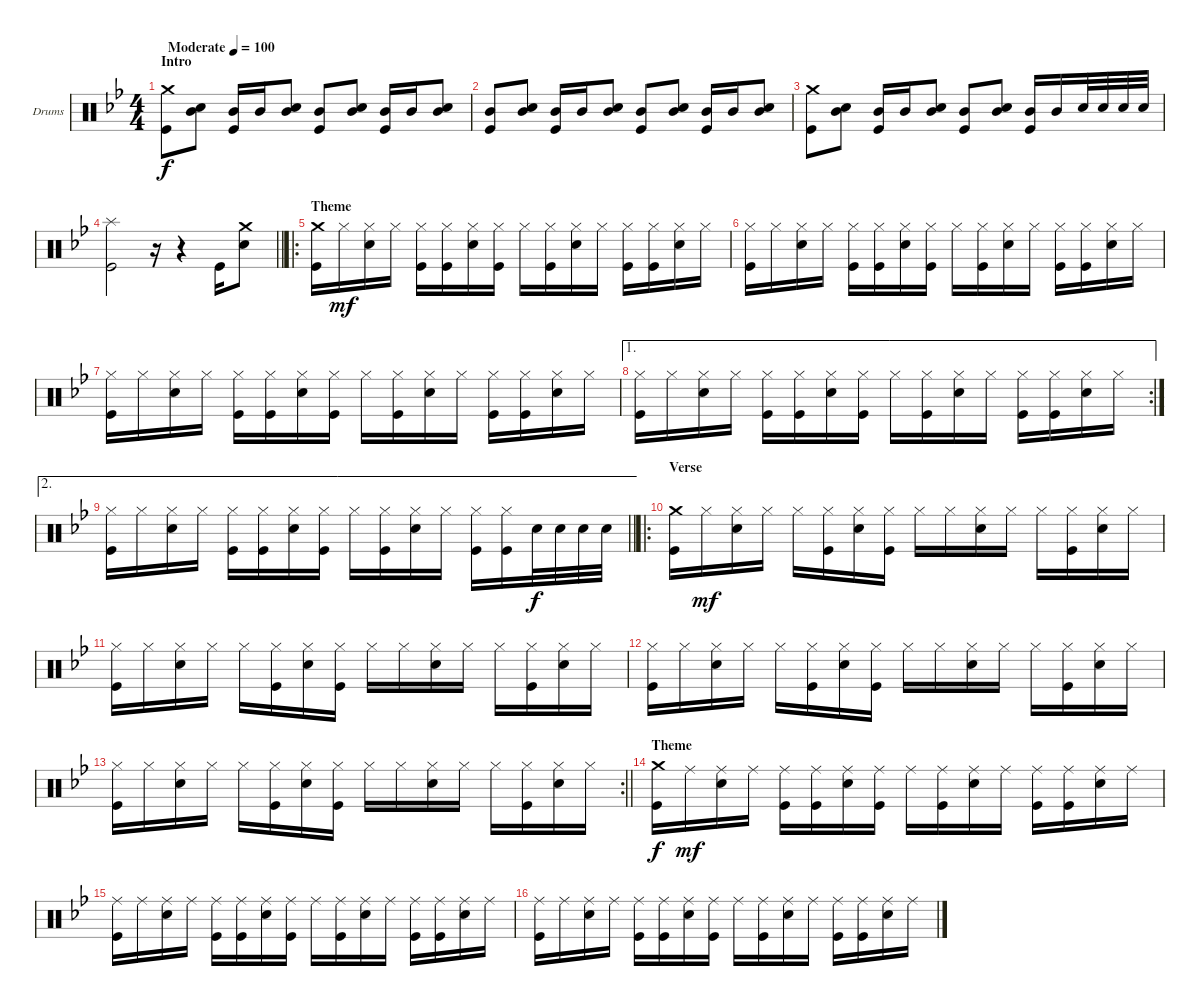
\bracketExtendMode groupsimilarinstruments
\firstSystemTrackNameOrientation horizontal
\otherSystemsTrackNameOrientation horizontal
\track ("Drumkit" "Drums") {instrument percussion}
\staff {score}
\articulation defaults
\ts (4 4)
\beaming (8 2 2 2 2)
\section ("" "Intro")
\tempo (100 "Moderate")
\clef neutral
\ks gminor
("Crash medium (hit)" "Kick (hit)").8{dy f} ("Mid Tom (hit)" "Snare (hit) 2").8 ("Mid Tom (hit)" "Kick (hit)").16 "Mid Tom (hit)".16 ("Mid Tom (hit)" "Snare (hit) 2").8 ("Mid Tom (hit)" "Kick (hit)").8 ("Mid Tom (hit)" "Snare (hit) 2").8 ("Mid Tom (hit)" "Kick (hit)").16 "Mid Tom (hit)".16 ("Mid Tom (hit)" "Snare (hit) 2").8 |
("Mid Tom (hit)" "Kick (hit)").8 ("Mid Tom (hit)" "Snare (hit) 2").8 ("Mid Tom (hit)" "Kick (hit)").16 "Mid Tom (hit)".16 ("Mid Tom (hit)" "Snare (hit) 2").8 ("Mid Tom (hit)" "Kick (hit)").8 ("Mid Tom (hit)" "Snare (hit) 2").8 ("Mid Tom (hit)" "Kick (hit)").16 "Mid Tom (hit)".16 ("Mid Tom (hit)" "Snare (hit) 2").8 |
("Crash medium (hit)" "Kick (hit)").8 ("Mid Tom (hit)" "Snare (hit) 2").8 ("Mid Tom (hit)" "Kick (hit)").16 "Mid Tom (hit)".16 ("Mid Tom (hit)" "Snare (hit) 2").8 ("Mid Tom (hit)" "Kick (hit)").8 ("Mid Tom (hit)" "Snare (hit) 2").8 ("Mid Tom (hit)" "Kick (hit)").16 "Mid Tom (hit)".16 "Snare (hit) 2".32 "Snare (hit) 2".32 "Snare (hit) 2".32 "Snare (hit) 2".32 |
\barLineRight lightlight
("Splash (hit)" "Kick (hit)").2 r.16 r.4 "Kick (hit)".16 ("Crash medium (hit)" "Snare (hit) 2").8 |
\ro
\section ("" "Theme")
("Crash medium (hit)" "Kick (hit)").16 "Hi-Hat (closed)".16{dy mf} ("Hi-Hat (closed)" "Snare (hit) 2").16 "Hi-Hat (closed)".16 ("Hi-Hat (closed)" "Kick (hit)").16 ("Hi-Hat (closed)" "Kick (hit)").16 ("Hi-Hat (closed)" "Snare (hit) 2").16 ("Hi-Hat (closed)" "Kick (hit)").16 "Hi-Hat (closed)".16 ("Hi-Hat (closed)" "Kick (hit)").16 ("Hi-Hat (closed)" "Snare (hit) 2").16 "Hi-Hat (closed)".16 ("Hi-Hat (closed)" "Kick (hit)").16 ("Hi-Hat (closed)" "Kick (hit)").16 ("Hi-Hat (closed)" "Snare (hit) 2").16 "Hi-Hat (closed)".16 |
("Hi-Hat (closed)" "Kick (hit)").16 "Hi-Hat (closed)".16 ("Hi-Hat (closed)" "Snare (hit) 2").16 "Hi-Hat (closed)".16 ("Hi-Hat (closed)" "Kick (hit)").16 ("Hi-Hat (closed)" "Kick (hit)").16 ("Hi-Hat (closed)" "Snare (hit) 2").16 ("Hi-Hat (closed)" "Kick (hit)").16 "Hi-Hat (closed)".16 ("Hi-Hat (closed)" "Kick (hit)").16 ("Hi-Hat (closed)" "Snare (hit) 2").16 "Hi-Hat (closed)".16 ("Hi-Hat (closed)" "Kick (hit)").16 ("Hi-Hat (closed)" "Kick (hit)").16 ("Hi-Hat (closed)" "Snare (hit) 2").16 "Hi-Hat (closed)".16 |
("Hi-Hat (closed)" "Kick (hit)").16 "Hi-Hat (closed)".16 ("Hi-Hat (closed)" "Snare (hit) 2").16 "Hi-Hat (closed)".16 ("Hi-Hat (closed)" "Kick (hit)").16 ("Hi-Hat (closed)" "Kick (hit)").16 ("Hi-Hat (closed)" "Snare (hit) 2").16 ("Hi-Hat (closed)" "Kick (hit)").16 "Hi-Hat (closed)".16 ("Hi-Hat (closed)" "Kick (hit)").16 ("Hi-Hat (closed)" "Snare (hit) 2").16 "Hi-Hat (closed)".16 ("Hi-Hat (closed)" "Kick (hit)").16 ("Hi-Hat (closed)" "Kick (hit)").16 ("Hi-Hat (closed)" "Snare (hit) 2").16 "Hi-Hat (closed)".16 |
\ae 1
\rc 2
("Hi-Hat (closed)" "Kick (hit)").16 "Hi-Hat (closed)".16 ("Hi-Hat (closed)" "Snare (hit) 2").16 "Hi-Hat (closed)".16 ("Hi-Hat (closed)" "Kick (hit)").16 ("Hi-Hat (closed)" "Kick (hit)").16 ("Hi-Hat (closed)" "Snare (hit) 2").16 ("Hi-Hat (closed)" "Kick (hit)").16 "Hi-Hat (closed)".16 ("Hi-Hat (closed)" "Kick (hit)").16 ("Hi-Hat (closed)" "Snare (hit) 2").16 "Hi-Hat (closed)".16 ("Hi-Hat (closed)" "Kick (hit)").16 ("Hi-Hat (closed)" "Kick (hit)").16 ("Hi-Hat (closed)" "Snare (hit) 2").16 "Hi-Hat (closed)".16 |
\ae 2
\barLineRight lightlight
("Hi-Hat (closed)" "Kick (hit)").16 "Hi-Hat (closed)".16 ("Hi-Hat (closed)" "Snare (hit) 2").16 "Hi-Hat (closed)".16 ("Hi-Hat (closed)" "Kick (hit)").16 ("Hi-Hat (closed)" "Kick (hit)").16 ("Hi-Hat (closed)" "Snare (hit) 2").16 ("Hi-Hat (closed)" "Kick (hit)").16 "Hi-Hat (closed)".16 ("Hi-Hat (closed)" "Kick (hit)").16 ("Hi-Hat (closed)" "Snare (hit) 2").16 "Hi-Hat (closed)".16 ("Hi-Hat (closed)" "Kick (hit)").16 ("Hi-Hat (closed)" "Kick (hit)").16 "Snare (hit) 2".32{dy f} "Snare (hit) 2".32 "Snare (hit) 2".32 "Snare (hit) 2".32 |
\ro
\section ("" "Verse")
("Crash medium (hit)" "Kick (hit)").16 "Hi-Hat (closed)".16{dy mf} ("Hi-Hat (closed)" "Snare (hit) 2").16 "Hi-Hat (closed)".16 "Hi-Hat (closed)".16 ("Hi-Hat (closed)" "Kick (hit)").16 ("Hi-Hat (closed)" "Snare (hit) 2").16 ("Hi-Hat (closed)" "Kick (hit)").16 "Hi-Hat (closed)".16 "Hi-Hat (closed)".16 ("Hi-Hat (closed)" "Snare (hit) 2").16 "Hi-Hat (closed)".16 "Hi-Hat (closed)".16 ("Hi-Hat (closed)" "Kick (hit)").16 ("Hi-Hat (closed)" "Snare (hit) 2").16 "Hi-Hat (closed)".16 |
("Hi-Hat (closed)" "Kick (hit)").16 "Hi-Hat (closed)".16 ("Hi-Hat (closed)" "Snare (hit) 2").16 "Hi-Hat (closed)".16 "Hi-Hat (closed)".16 ("Hi-Hat (closed)" "Kick (hit)").16 ("Hi-Hat (closed)" "Snare (hit) 2").16 ("Hi-Hat (closed)" "Kick (hit)").16 "Hi-Hat (closed)".16 "Hi-Hat (closed)".16 ("Hi-Hat (closed)" "Snare (hit) 2").16 "Hi-Hat (closed)".16 "Hi-Hat (closed)".16 ("Hi-Hat (closed)" "Kick (hit)").16 ("Hi-Hat (closed)" "Snare (hit) 2").16 "Hi-Hat (closed)".16 |
("Hi-Hat (closed)" "Kick (hit)").16 "Hi-Hat (closed)".16 ("Hi-Hat (closed)" "Snare (hit) 2").16 "Hi-Hat (closed)".16 "Hi-Hat (closed)".16 ("Hi-Hat (closed)" "Kick (hit)").16 ("Hi-Hat (closed)" "Snare (hit) 2").16 ("Hi-Hat (closed)" "Kick (hit)").16 "Hi-Hat (closed)".16 "Hi-Hat (closed)".16 ("Hi-Hat (closed)" "Snare (hit) 2").16 "Hi-Hat (closed)".16 "Hi-Hat (closed)".16 ("Hi-Hat (closed)" "Kick (hit)").16 ("Hi-Hat (closed)" "Snare (hit) 2").16 "Hi-Hat (closed)".16 |
\rc 2
\barLineRight lightlight
("Hi-Hat (closed)" "Kick (hit)").16 "Hi-Hat (closed)".16 ("Hi-Hat (closed)" "Snare (hit) 2").16 "Hi-Hat (closed)".16 "Hi-Hat (closed)".16 ("Hi-Hat (closed)" "Kick (hit)").16 ("Hi-Hat (closed)" "Snare (hit) 2").16 ("Hi-Hat (closed)" "Kick (hit)").16 "Hi-Hat (closed)".16 "Hi-Hat (closed)".16 ("Hi-Hat (closed)" "Snare (hit) 2").16 "Hi-Hat (closed)".16 "Hi-Hat (closed)".16 ("Hi-Hat (closed)" "Kick (hit)").16 ("Hi-Hat (closed)" "Snare (hit) 2").16 "Hi-Hat (closed)".16 |
\section ("" "Theme")
("Crash medium (hit)" "Kick (hit)").16{dy f} "Ride (middle)".16{dy mf} ("Ride (middle)" "Snare (hit) 2").16 "Ride (middle)".16 ("Ride (middle)" "Kick (hit)").16 ("Ride (middle)" "Kick (hit)").16 ("Ride (middle)" "Snare (hit) 2").16 ("Ride (middle)" "Kick (hit)").16 "Ride (middle)".16 ("Ride (middle)" "Kick (hit)").16 ("Ride (middle)" "Snare (hit) 2").16 "Ride (middle)".16 ("Ride (middle)" "Kick (hit)").16 ("Ride (middle)" "Kick (hit)").16 ("Ride (middle)" "Snare (hit) 2").16 "Ride (middle)".16 |
("Ride (middle)" "Kick (hit)").16 "Ride (middle)".16 ("Ride (middle)" "Snare (hit) 2").16 "Ride (middle)".16 ("Ride (middle)" "Kick (hit)").16 ("Ride (middle)" "Kick (hit)").16 ("Ride (middle)" "Snare (hit) 2").16 ("Ride (middle)" "Kick (hit)").16 "Ride (middle)".16 ("Ride (middle)" "Kick (hit)").16 ("Ride (middle)" "Snare (hit) 2").16 "Ride (middle)".16 ("Ride (middle)" "Kick (hit)").16 ("Ride (middle)" "Kick (hit)").16 ("Ride (middle)" "Snare (hit) 2").16 "Ride (middle)".16 |
("Ride (middle)" "Kick (hit)").16 "Ride (middle)".16 ("Ride (middle)" "Snare (hit) 2").16 "Ride (middle)".16 ("Ride (middle)" "Kick (hit)").16 ("Ride (middle)" "Kick (hit)").16 ("Ride (middle)" "Snare (hit) 2").16 ("Ride (middle)" "Kick (hit)").16 "Ride (middle)".16 ("Ride (middle)" "Kick (hit)").16 ("Ride (middle)" "Snare (hit) 2").16 "Ride (middle)".16 ("Ride (middle)" "Kick (hit)").16 ("Ride (middle)" "Kick (hit)").16 ("Ride (middle)" "Snare (hit) 2").16 "Ride (middle)".16
